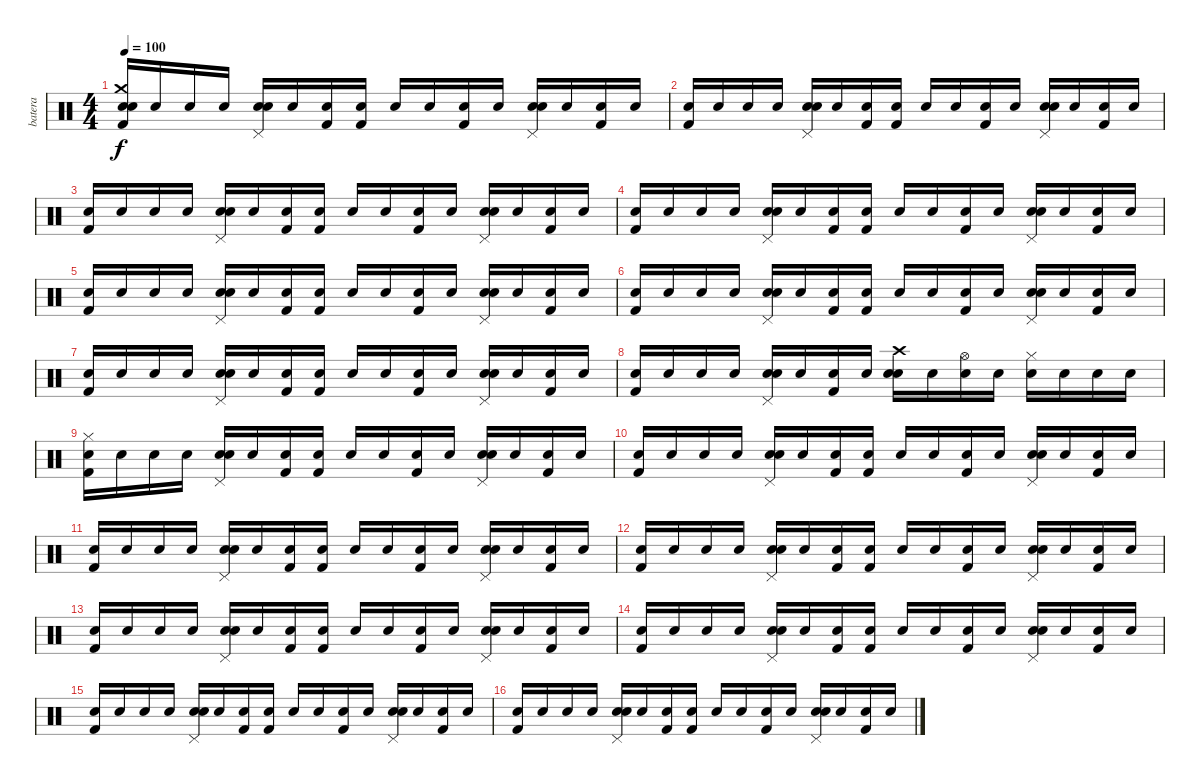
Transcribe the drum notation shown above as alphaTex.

\track ("batera" "batera") {instrument percussion}
\staff {score}
\articulation defaults
\ts (4 4)
\tempo 100
\clef neutral
\ks c
("Snare (hit)" "Crash medium (hit)" "Kick (hit) 2" "Snare (hit) 2").16{dy f} "Snare (hit)".16 "Snare (hit)".16 "Snare (hit)".16 ("Snare (hit)" "Pedal Hi-Hat (hit)" "Snare (hit) 2").16 "Snare (hit)".16 ("Snare (hit)" "Kick (hit) 2").16 ("Snare (hit)" "Kick (hit) 2").16 "Snare (hit)".16 "Snare (hit)".16 ("Snare (hit)" "Kick (hit) 2").16 "Snare (hit)".16 ("Snare (hit)" "Pedal Hi-Hat (hit)" "Snare (hit) 2").16 "Snare (hit)".16 ("Snare (hit)" "Kick (hit) 2").16 "Snare (hit)".16 |
("Snare (hit)" "Kick (hit) 2").16 "Snare (hit)".16 "Snare (hit)".16 "Snare (hit)".16 ("Snare (hit)" "Pedal Hi-Hat (hit)" "Snare (hit) 2").16 "Snare (hit)".16 ("Snare (hit)" "Kick (hit) 2").16 ("Snare (hit)" "Kick (hit) 2").16 "Snare (hit)".16 "Snare (hit)".16 ("Snare (hit)" "Kick (hit) 2").16 "Snare (hit)".16 ("Snare (hit)" "Pedal Hi-Hat (hit)" "Snare (hit) 2").16 "Snare (hit)".16 ("Snare (hit)" "Kick (hit) 2").16 "Snare (hit)".16 |
("Snare (hit)" "Kick (hit) 2").16 "Snare (hit)".16 "Snare (hit)".16 "Snare (hit)".16 ("Snare (hit)" "Pedal Hi-Hat (hit)" "Snare (hit) 2").16 "Snare (hit)".16 ("Snare (hit)" "Kick (hit) 2").16 ("Snare (hit)" "Kick (hit) 2").16 "Snare (hit)".16 "Snare (hit)".16 ("Snare (hit)" "Kick (hit) 2").16 "Snare (hit)".16 ("Snare (hit)" "Pedal Hi-Hat (hit)" "Snare (hit) 2").16 "Snare (hit)".16 ("Snare (hit)" "Kick (hit) 2").16 "Snare (hit)".16 |
("Snare (hit)" "Kick (hit) 2").16 "Snare (hit)".16 "Snare (hit)".16 "Snare (hit)".16 ("Snare (hit)" "Pedal Hi-Hat (hit)" "Snare (hit) 2").16 "Snare (hit)".16 ("Snare (hit)" "Kick (hit) 2").16 ("Snare (hit)" "Kick (hit) 2").16 "Snare (hit)".16 "Snare (hit)".16 ("Snare (hit)" "Kick (hit) 2").16 "Snare (hit)".16 ("Snare (hit)" "Pedal Hi-Hat (hit)" "Snare (hit) 2").16 "Snare (hit)".16 ("Snare (hit)" "Kick (hit) 2").16 "Snare (hit)".16 |
("Snare (hit)" "Kick (hit) 2").16 "Snare (hit)".16 "Snare (hit)".16 "Snare (hit)".16 ("Snare (hit)" "Pedal Hi-Hat (hit)" "Snare (hit) 2").16 "Snare (hit)".16 ("Snare (hit)" "Kick (hit) 2").16 ("Snare (hit)" "Kick (hit) 2").16 "Snare (hit)".16 "Snare (hit)".16 ("Snare (hit)" "Kick (hit) 2").16 "Snare (hit)".16 ("Snare (hit)" "Pedal Hi-Hat (hit)" "Snare (hit) 2").16 "Snare (hit)".16 ("Snare (hit)" "Kick (hit) 2").16 "Snare (hit)".16 |
("Snare (hit)" "Kick (hit) 2").16 "Snare (hit)".16 "Snare (hit)".16 "Snare (hit)".16 ("Snare (hit)" "Pedal Hi-Hat (hit)" "Snare (hit) 2").16 "Snare (hit)".16 ("Snare (hit)" "Kick (hit) 2").16 ("Snare (hit)" "Kick (hit) 2").16 "Snare (hit)".16 "Snare (hit)".16 ("Snare (hit)" "Kick (hit) 2").16 "Snare (hit)".16 ("Snare (hit)" "Pedal Hi-Hat (hit)" "Snare (hit) 2").16 "Snare (hit)".16 ("Snare (hit)" "Kick (hit) 2").16 "Snare (hit)".16 |
("Snare (hit)" "Kick (hit) 2").16 "Snare (hit)".16 "Snare (hit)".16 "Snare (hit)".16 ("Snare (hit)" "Pedal Hi-Hat (hit)" "Snare (hit) 2").16 "Snare (hit)".16 ("Snare (hit)" "Kick (hit) 2").16 ("Snare (hit)" "Kick (hit) 2").16 "Snare (hit)".16 "Snare (hit)".16 ("Snare (hit)" "Kick (hit) 2").16 "Snare (hit)".16 ("Snare (hit)" "Pedal Hi-Hat (hit)" "Snare (hit) 2").16 "Snare (hit)".16 ("Snare (hit)" "Kick (hit) 2").16 "Snare (hit)".16 |
("Snare (hit)" "Kick (hit) 2").16 "Snare (hit)".16 "Snare (hit)".16 "Snare (hit)".16 ("Snare (hit)" "Pedal Hi-Hat (hit)" "Snare (hit) 2").16 "Snare (hit)".16 ("Snare (hit)" "Kick (hit) 2").16 "Snare (hit)".16 ("Snare (hit)" "Crash high (hit)" "Snare (hit) 2").16 "Snare (hit)".16 ("Snare (hit)" "Hi-Hat (open)").16 "Snare (hit)".16 ("Snare (hit)" "Hi-Hat (closed)").16 "Snare (hit)".16 "Snare (hit)".16 "Snare (hit)".16 |
("Snare (hit)" "Hi-Hat (closed)" "Kick (hit) 2").16 "Snare (hit)".16 "Snare (hit)".16 "Snare (hit)".16 ("Snare (hit)" "Pedal Hi-Hat (hit)" "Snare (hit) 2").16 "Snare (hit)".16 ("Snare (hit)" "Kick (hit) 2").16 ("Snare (hit)" "Kick (hit) 2").16 "Snare (hit)".16 "Snare (hit)".16 ("Snare (hit)" "Kick (hit) 2").16 "Snare (hit)".16 ("Snare (hit)" "Pedal Hi-Hat (hit)" "Snare (hit) 2").16 "Snare (hit)".16 ("Snare (hit)" "Kick (hit) 2").16 "Snare (hit)".16 |
("Snare (hit)" "Kick (hit) 2").16 "Snare (hit)".16 "Snare (hit)".16 "Snare (hit)".16 ("Snare (hit)" "Pedal Hi-Hat (hit)" "Snare (hit) 2").16 "Snare (hit)".16 ("Snare (hit)" "Kick (hit) 2").16 ("Snare (hit)" "Kick (hit) 2").16 "Snare (hit)".16 "Snare (hit)".16 ("Snare (hit)" "Kick (hit) 2").16 "Snare (hit)".16 ("Snare (hit)" "Pedal Hi-Hat (hit)" "Snare (hit) 2").16 "Snare (hit)".16 ("Snare (hit)" "Kick (hit) 2").16 "Snare (hit)".16 |
("Snare (hit)" "Kick (hit) 2").16 "Snare (hit)".16 "Snare (hit)".16 "Snare (hit)".16 ("Snare (hit)" "Pedal Hi-Hat (hit)" "Snare (hit) 2").16 "Snare (hit)".16 ("Snare (hit)" "Kick (hit) 2").16 ("Snare (hit)" "Kick (hit) 2").16 "Snare (hit)".16 "Snare (hit)".16 ("Snare (hit)" "Kick (hit) 2").16 "Snare (hit)".16 ("Snare (hit)" "Pedal Hi-Hat (hit)" "Snare (hit) 2").16 "Snare (hit)".16 ("Snare (hit)" "Kick (hit) 2").16 "Snare (hit)".16 |
("Snare (hit)" "Kick (hit) 2").16 "Snare (hit)".16 "Snare (hit)".16 "Snare (hit)".16 ("Snare (hit)" "Pedal Hi-Hat (hit)" "Snare (hit) 2").16 "Snare (hit)".16 ("Snare (hit)" "Kick (hit) 2").16 ("Snare (hit)" "Kick (hit) 2").16 "Snare (hit)".16 "Snare (hit)".16 ("Snare (hit)" "Kick (hit) 2").16 "Snare (hit)".16 ("Snare (hit)" "Pedal Hi-Hat (hit)" "Snare (hit) 2").16 "Snare (hit)".16 ("Snare (hit)" "Kick (hit) 2").16 "Snare (hit)".16 |
("Snare (hit)" "Kick (hit) 2").16 "Snare (hit)".16 "Snare (hit)".16 "Snare (hit)".16 ("Snare (hit)" "Pedal Hi-Hat (hit)" "Snare (hit) 2").16 "Snare (hit)".16 ("Snare (hit)" "Kick (hit) 2").16 ("Snare (hit)" "Kick (hit) 2").16 "Snare (hit)".16 "Snare (hit)".16 ("Snare (hit)" "Kick (hit) 2").16 "Snare (hit)".16 ("Snare (hit)" "Pedal Hi-Hat (hit)" "Snare (hit) 2").16 "Snare (hit)".16 ("Snare (hit)" "Kick (hit) 2").16 "Snare (hit)".16 |
("Snare (hit)" "Kick (hit) 2").16 "Snare (hit)".16 "Snare (hit)".16 "Snare (hit)".16 ("Snare (hit)" "Pedal Hi-Hat (hit)" "Snare (hit) 2").16 "Snare (hit)".16 ("Snare (hit)" "Kick (hit) 2").16 ("Snare (hit)" "Kick (hit) 2").16 "Snare (hit)".16 "Snare (hit)".16 ("Snare (hit)" "Kick (hit) 2").16 "Snare (hit)".16 ("Snare (hit)" "Pedal Hi-Hat (hit)" "Snare (hit) 2").16 "Snare (hit)".16 ("Snare (hit)" "Kick (hit) 2").16 "Snare (hit)".16 |
("Snare (hit)" "Kick (hit) 2").16 "Snare (hit)".16 "Snare (hit)".16 "Snare (hit)".16 ("Snare (hit)" "Pedal Hi-Hat (hit)" "Snare (hit) 2").16 "Snare (hit)".16 ("Snare (hit)" "Kick (hit) 2").16 ("Snare (hit)" "Kick (hit) 2").16 "Snare (hit)".16 "Snare (hit)".16 ("Snare (hit)" "Kick (hit) 2").16 "Snare (hit)".16 ("Snare (hit)" "Pedal Hi-Hat (hit)" "Snare (hit) 2").16 "Snare (hit)".16 ("Snare (hit)" "Kick (hit) 2").16 "Snare (hit)".16 |
("Snare (hit)" "Kick (hit) 2").16 "Snare (hit)".16 "Snare (hit)".16 "Snare (hit)".16 ("Snare (hit)" "Pedal Hi-Hat (hit)" "Snare (hit) 2").16 "Snare (hit)".16 ("Snare (hit)" "Kick (hit) 2").16 ("Snare (hit)" "Kick (hit) 2").16 "Snare (hit)".16 "Snare (hit)".16 ("Snare (hit)" "Kick (hit) 2").16 "Snare (hit)".16 ("Snare (hit)" "Pedal Hi-Hat (hit)" "Snare (hit) 2").16 "Snare (hit)".16 ("Snare (hit)" "Kick (hit) 2").16 "Snare (hit)".16
